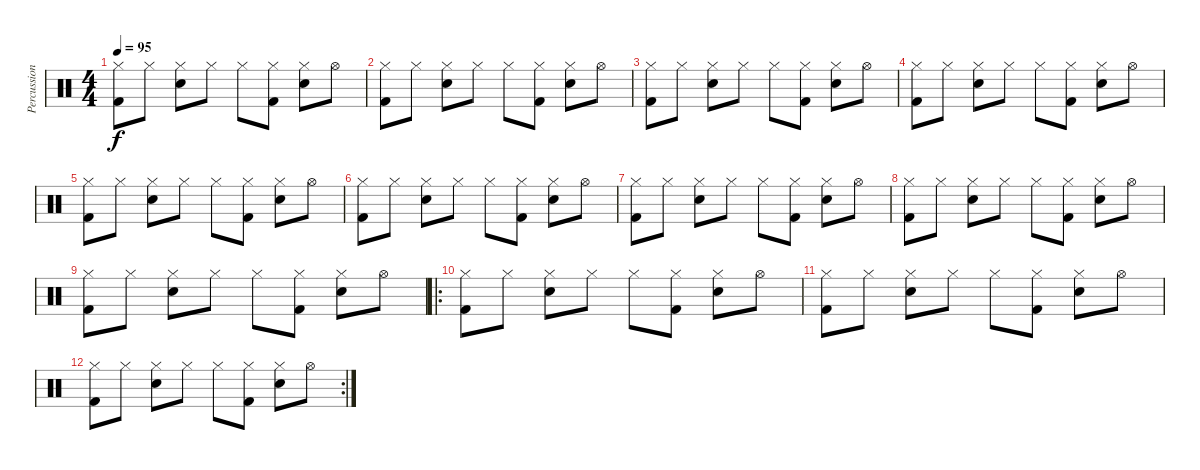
\track ("Percussion" "Percussion") {instrument percussion}
\staff {score}
\articulation defaults
\ts (4 4)
\tempo 95
\clef neutral
\ks c
("Kick (hit) 2" "Hi-Hat (closed)").8{dy f} "Hi-Hat (closed)".8 ("Snare (hit) 2" "Hi-Hat (closed)").8 "Hi-Hat (closed)".8 "Hi-Hat (closed)".8 ("Kick (hit) 2" "Hi-Hat (closed)").8 ("Snare (hit) 2" "Hi-Hat (closed)").8 "Hi-Hat (open)".8 |
("Kick (hit) 2" "Hi-Hat (closed)").8 "Hi-Hat (closed)".8 ("Snare (hit) 2" "Hi-Hat (closed)").8 "Hi-Hat (closed)".8 "Hi-Hat (closed)".8 ("Kick (hit) 2" "Hi-Hat (closed)").8 ("Snare (hit) 2" "Hi-Hat (closed)").8 "Hi-Hat (open)".8 |
("Kick (hit) 2" "Hi-Hat (closed)").8 "Hi-Hat (closed)".8 ("Snare (hit) 2" "Hi-Hat (closed)").8 "Hi-Hat (closed)".8 "Hi-Hat (closed)".8 ("Kick (hit) 2" "Hi-Hat (closed)").8 ("Snare (hit) 2" "Hi-Hat (closed)").8 "Hi-Hat (open)".8 |
("Kick (hit) 2" "Hi-Hat (closed)").8 "Hi-Hat (closed)".8 ("Snare (hit) 2" "Hi-Hat (closed)").8 "Hi-Hat (closed)".8 "Hi-Hat (closed)".8 ("Kick (hit) 2" "Hi-Hat (closed)").8 ("Snare (hit) 2" "Hi-Hat (closed)").8 "Hi-Hat (open)".8 |
("Kick (hit) 2" "Hi-Hat (closed)").8 "Hi-Hat (closed)".8 ("Snare (hit) 2" "Hi-Hat (closed)").8 "Hi-Hat (closed)".8 "Hi-Hat (closed)".8 ("Kick (hit) 2" "Hi-Hat (closed)").8 ("Snare (hit) 2" "Hi-Hat (closed)").8 "Hi-Hat (open)".8 |
("Kick (hit) 2" "Hi-Hat (closed)").8 "Hi-Hat (closed)".8 ("Snare (hit) 2" "Hi-Hat (closed)").8 "Hi-Hat (closed)".8 "Hi-Hat (closed)".8 ("Kick (hit) 2" "Hi-Hat (closed)").8 ("Snare (hit) 2" "Hi-Hat (closed)").8 "Hi-Hat (open)".8 |
("Kick (hit) 2" "Hi-Hat (closed)").8 "Hi-Hat (closed)".8 ("Snare (hit) 2" "Hi-Hat (closed)").8 "Hi-Hat (closed)".8 "Hi-Hat (closed)".8 ("Kick (hit) 2" "Hi-Hat (closed)").8 ("Snare (hit) 2" "Hi-Hat (closed)").8 "Hi-Hat (open)".8 |
("Kick (hit) 2" "Hi-Hat (closed)").8 "Hi-Hat (closed)".8 ("Snare (hit) 2" "Hi-Hat (closed)").8 "Hi-Hat (closed)".8 "Hi-Hat (closed)".8 ("Kick (hit) 2" "Hi-Hat (closed)").8 ("Snare (hit) 2" "Hi-Hat (closed)").8 "Hi-Hat (open)".8 |
("Kick (hit) 2" "Hi-Hat (closed)").8 "Hi-Hat (closed)".8 ("Snare (hit) 2" "Hi-Hat (closed)").8 "Hi-Hat (closed)".8 "Hi-Hat (closed)".8 ("Kick (hit) 2" "Hi-Hat (closed)").8 ("Snare (hit) 2" "Hi-Hat (closed)").8 "Hi-Hat (open)".8 |
\ro
("Kick (hit) 2" "Hi-Hat (closed)").8 "Hi-Hat (closed)".8 ("Snare (hit) 2" "Hi-Hat (closed)").8 "Hi-Hat (closed)".8 "Hi-Hat (closed)".8 ("Kick (hit) 2" "Hi-Hat (closed)").8 ("Snare (hit) 2" "Hi-Hat (closed)").8 "Hi-Hat (open)".8 |
("Kick (hit) 2" "Hi-Hat (closed)").8 "Hi-Hat (closed)".8 ("Snare (hit) 2" "Hi-Hat (closed)").8 "Hi-Hat (closed)".8 "Hi-Hat (closed)".8 ("Kick (hit) 2" "Hi-Hat (closed)").8 ("Snare (hit) 2" "Hi-Hat (closed)").8 "Hi-Hat (open)".8 |
\rc 2
("Kick (hit) 2" "Hi-Hat (closed)").8 "Hi-Hat (closed)".8 ("Snare (hit) 2" "Hi-Hat (closed)").8 "Hi-Hat (closed)".8 "Hi-Hat (closed)".8 ("Kick (hit) 2" "Hi-Hat (closed)").8 ("Snare (hit) 2" "Hi-Hat (closed)").8 "Hi-Hat (open)".8
